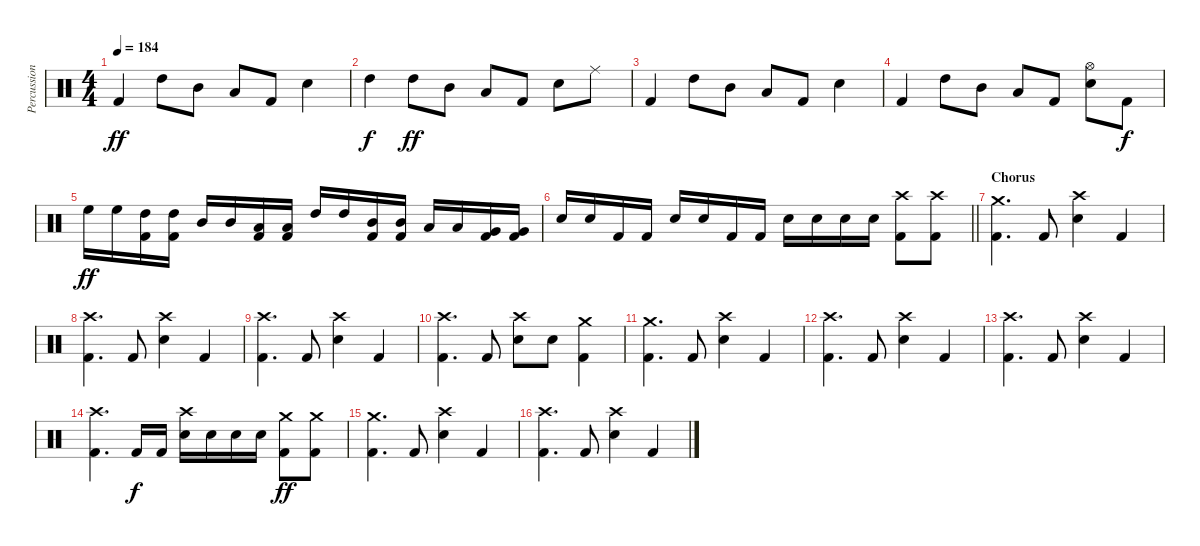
\track ("Percussion" "Percussion") {instrument percussion}
\staff {score}
\articulation defaults
\ts (4 4)
\tempo 184
\clef neutral
\ks c "Kick (hit) 2".4{dy ff} "High Tom (hit)".8 "Mid Tom (hit)".8 "Low Tom (hit)".8 "Kick (hit) 2".8 "Electric Snare (hit)".4
|
"High Tom (hit)".4{dy f} "High Tom (hit)".8{dy ff} "Mid Tom (hit)".8 "Low Tom (hit)".8 "Kick (hit) 2".8 "Electric Snare (hit)".8 "Ride (middle)".8 |
"Kick (hit) 2".4 "High Tom (hit)".8 "Mid Tom (hit)".8 "Low Tom (hit)".8 "Kick (hit) 2".8 "Electric Snare (hit)".4 |
"Kick (hit) 2".4 "High Tom (hit)".8 "Mid Tom (hit)".8 "Low Tom (hit)".8 "Kick (hit) 2".8 ("Hi-Hat (open)" "Electric Snare (hit)").8 "Kick (hit) 2".8{dy f} |
"High Floor Tom (hit)".16{dy ff} "High Floor Tom (hit)".16 ("High Tom (hit)" "Kick (hit) 2").16 ("High Tom (hit)" "Kick (hit) 2").16 "Mid Tom (hit)".16 "Mid Tom (hit)".16 ("Low Tom (hit)" "Kick (hit) 2").16 ("Low Tom (hit)" "Kick (hit) 2").16 "High Tom (hit)".16 "High Tom (hit)".16 ("Mid Tom (hit)" "Kick (hit) 2").16 ("Mid Tom (hit)" "Kick (hit) 2").16 "Low Tom (hit)".16 "Low Tom (hit)".16 ("Very Low Tom (hit)" "Kick (hit) 2").16 ("Very Low Tom (hit)" "Kick (hit) 2").16 |
\barLineRight lightlight "Electric Snare (hit)".16 "Electric Snare (hit)".16 "Kick (hit) 2".16 "Kick (hit) 2".16 "Electric Snare (hit)".16 "Electric Snare (hit)".16 "Kick (hit) 2".16 "Kick (hit) 2".16 "Electric Snare (hit)".16 "Electric Snare (hit)".16 "Electric Snare (hit)".16 "Electric Snare (hit)".16
("Crash high (hit)" "Kick (hit) 2").8 ("Crash high (hit)" "Kick (hit) 2").8 |
\section ("" "Chorus")
("Crash medium (hit)" "Kick (hit) 2").4{d} "Kick (hit) 2".8 ("Crash high (hit)" "Electric Snare (hit)").4 "Kick (hit) 2".4 |
("Crash high (hit)" "Kick (hit) 2").4{d} "Kick (hit) 2".8 ("Crash high (hit)" "Electric Snare (hit)").4 "Kick (hit) 2".4 |
("Crash high (hit)" "Kick (hit) 2").4{d} "Kick (hit) 2".8 ("Crash high (hit)" "Electric Snare (hit)").4 "Kick (hit) 2".4 |
("Crash high (hit)" "Kick (hit) 2").4{d} "Kick (hit) 2".8 ("Crash high (hit)" "Electric Snare (hit)").8 "Electric Snare (hit)".8 ("Crash medium (hit)" "Kick (hit) 2").4 |
("Crash medium (hit)" "Kick (hit) 2").4{d} "Kick (hit) 2".8 ("Crash high (hit)" "Electric Snare (hit)").4 "Kick (hit) 2".4 |
("Crash high (hit)" "Kick (hit) 2").4{d} "Kick (hit) 2".8 ("Crash high (hit)" "Electric Snare (hit)").4 "Kick (hit) 2".4 |
("Crash high (hit)" "Kick (hit) 2").4{d} "Kick (hit) 2".8 ("Crash high (hit)" "Electric Snare (hit)").4 "Kick (hit) 2".4 |
("Crash high (hit)" "Kick (hit) 2").4{d} "Kick (hit) 2".16{dy f} "Kick (hit) 2".16 ("Crash high (hit)" "Electric Snare (hit)").16 "Electric Snare (hit)".16 "Electric Snare (hit)".16 "Electric Snare (hit)".16 ("Crash medium (hit)" "Kick (hit) 2").8{dy ff} ("Crash medium (hit)" "Kick (hit) 2").8 |
("Crash medium (hit)" "Kick (hit) 2").4{d} "Kick (hit) 2".8 ("Crash high (hit)" "Electric Snare (hit)").4 "Kick (hit) 2".4 |
("Crash high (hit)" "Kick (hit) 2").4{d} "Kick (hit) 2".8 ("Crash high (hit)" "Electric Snare (hit)").4 "Kick (hit) 2".4
